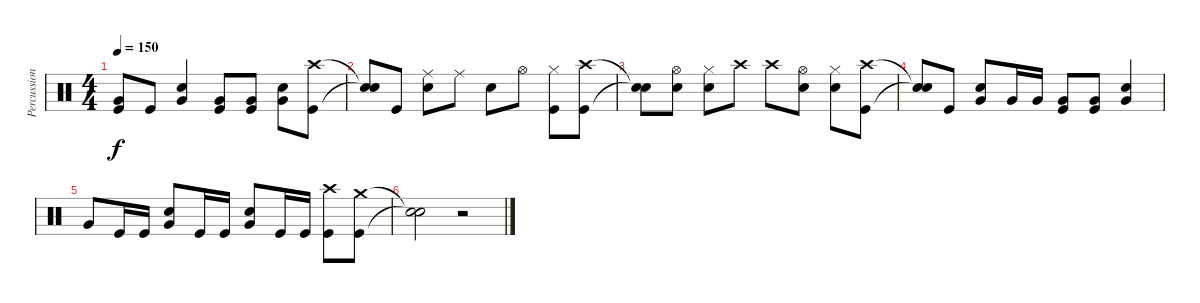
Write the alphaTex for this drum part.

\track ("Percussion" "Percussion") {instrument percussion}
\staff {score}
\articulation defaults
\ts (4 4)
\tempo 150
\clef neutral
\ks c
("Very Low Tom (hit)" "Kick (hit)").8{dy f} "Kick (hit)".8 ("Electric Snare (hit)" "Very Low Tom (hit)").4 ("Very Low Tom (hit)" "Kick (hit)").8 ("Very Low Tom (hit)" "Kick (hit)").8 ("Electric Snare (hit)" "Very Low Tom (hit)").8 ("Crash high (hit)" "Kick (hit)").8 |
("Snare (hit)"{t} "Snare (hit)"{t}).8 "Kick (hit)".8 ("Ride (middle)" "Electric Snare (hit)").8 "Ride (middle)".8 "Electric Snare (hit)".8 "Hi-Hat (open)".8 ("Hi-Hat (closed)" "Kick (hit)").8 ("Crash high (hit)" "Kick (hit)").8 |
("Snare (hit)"{t} "Snare (hit)"{t}).8 ("Hi-Hat (open)" "Electric Snare (hit)").8 ("Hi-Hat (closed)" "Electric Snare (hit)").8 "Crash high (hit)".8 "Crash high (hit)".8 ("Hi-Hat (open)" "Electric Snare (hit)").8 ("Hi-Hat (closed)" "Electric Snare (hit)").8 ("Crash high (hit)" "Kick (hit)").8 |
("Snare (hit)"{t} "Snare (hit)"{t}).8 "Kick (hit)".8 ("Electric Snare (hit)" "Very Low Tom (hit)").8 "Very Low Tom (hit)".16 "Very Low Tom (hit)".16 ("Very Low Tom (hit)" "Kick (hit)").8 ("Very Low Tom (hit)" "Kick (hit)").8 ("Electric Snare (hit)" "Very Low Tom (hit)").4 |
"Very Low Tom (hit)".8 "Kick (hit)".16 "Kick (hit)".16 ("Electric Snare (hit)" "Very Low Tom (hit)").8 "Kick (hit)".16 "Kick (hit)".16 ("Electric Snare (hit)" "Very Low Tom (hit)").8 "Kick (hit)".16 "Kick (hit)".16 ("Crash high (hit)" "Kick (hit)").8 ("Crash medium (hit)" "Kick (hit)").8 |
("Snare (hit)"{t} "Snare (hit)"{t}).2 r.2
